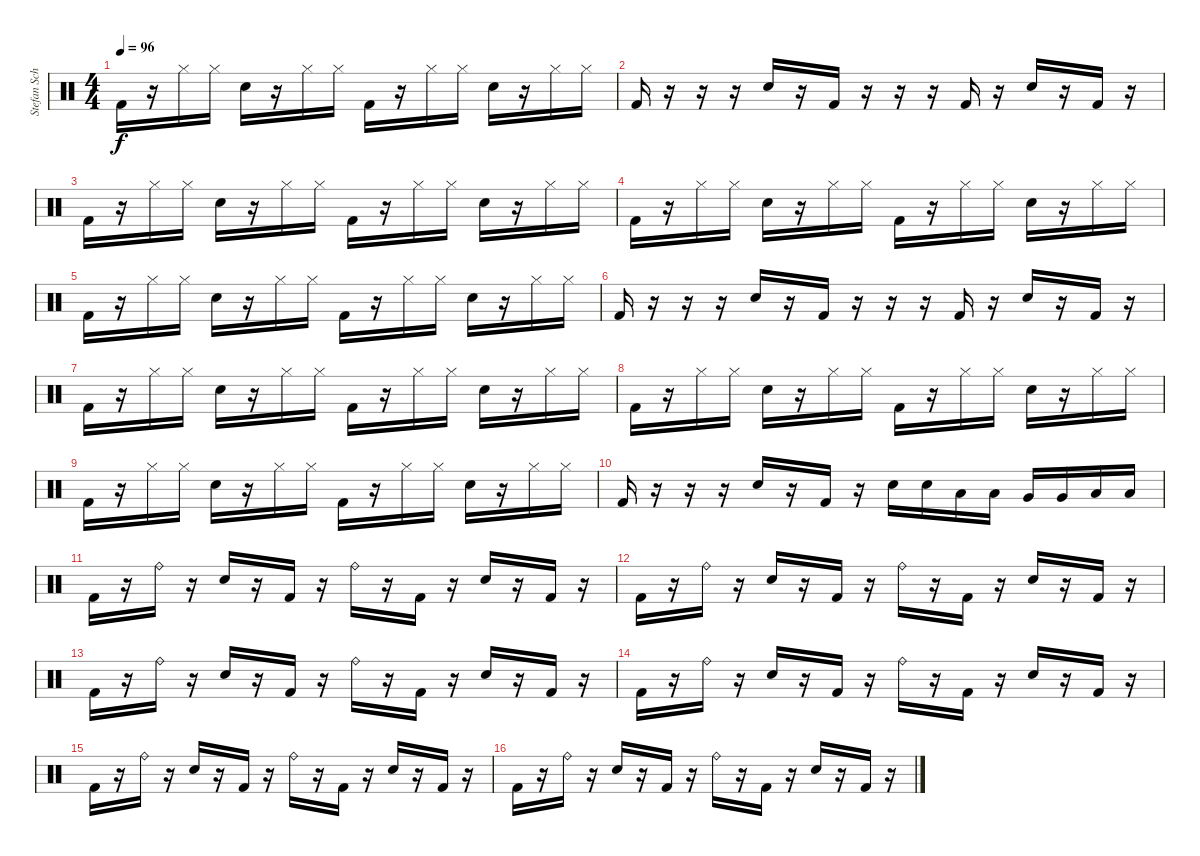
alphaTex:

\track ("Stefan Schwarzmann" "Stefan Sch") {instrument percussion}
\staff {score}
\articulation defaults
\ts (4 4)
\tempo 96
\clef neutral
\ks c "Kick (hit) 2".16{dy f}
r.16 "Hi-Hat (closed)".16 "Hi-Hat (closed)".16 "Snare (hit) 2".16 r.16 "Hi-Hat (closed)".16 "Hi-Hat (closed)".16 "Kick (hit) 2".16 r.16 "Hi-Hat (closed)".16 "Hi-Hat (closed)".16 "Snare (hit) 2".16 r.16 "Hi-Hat (closed)".16 "Hi-Hat (closed)".16 |
"Kick (hit) 2".16 r.16 r.16 r.16 "Snare (hit) 2".16 r.16 "Kick (hit) 2".16 r.16 r.16 r.16 "Kick (hit) 2".16 r.16 "Snare (hit) 2".16 r.16 "Kick (hit) 2".16 r.16 |
"Kick (hit) 2".16 r.16 "Hi-Hat (closed)".16 "Hi-Hat (closed)".16 "Snare (hit) 2".16 r.16 "Hi-Hat (closed)".16 "Hi-Hat (closed)".16 "Kick (hit) 2".16 r.16 "Hi-Hat (closed)".16 "Hi-Hat (closed)".16 "Snare (hit) 2".16 r.16 "Hi-Hat (closed)".16 "Hi-Hat (closed)".16 |
"Kick (hit) 2".16 r.16 "Hi-Hat (closed)".16 "Hi-Hat (closed)".16 "Snare (hit) 2".16 r.16 "Hi-Hat (closed)".16 "Hi-Hat (closed)".16 "Kick (hit) 2".16 r.16 "Hi-Hat (closed)".16 "Hi-Hat (closed)".16 "Snare (hit) 2".16 r.16 "Hi-Hat (closed)".16 "Hi-Hat (closed)".16 |
"Kick (hit) 2".16 r.16 "Hi-Hat (closed)".16 "Hi-Hat (closed)".16 "Snare (hit) 2".16 r.16 "Hi-Hat (closed)".16 "Hi-Hat (closed)".16 "Kick (hit) 2".16 r.16 "Hi-Hat (closed)".16 "Hi-Hat (closed)".16 "Snare (hit) 2".16 r.16 "Hi-Hat (closed)".16 "Hi-Hat (closed)".16 |
"Kick (hit) 2".16 r.16 r.16 r.16 "Snare (hit) 2".16 r.16 "Kick (hit) 2".16 r.16 r.16 r.16 "Kick (hit) 2".16 r.16 "Snare (hit) 2".16 r.16 "Kick (hit) 2".16 r.16 |
"Kick (hit) 2".16 r.16 "Hi-Hat (closed)".16 "Hi-Hat (closed)".16 "Snare (hit) 2".16 r.16 "Hi-Hat (closed)".16 "Hi-Hat (closed)".16 "Kick (hit) 2".16 r.16 "Hi-Hat (closed)".16 "Hi-Hat (closed)".16 "Snare (hit) 2".16 r.16 "Hi-Hat (closed)".16 "Hi-Hat (closed)".16 |
"Kick (hit) 2".16 r.16 "Hi-Hat (closed)".16 "Hi-Hat (closed)".16 "Snare (hit) 2".16 r.16 "Hi-Hat (closed)".16 "Hi-Hat (closed)".16 "Kick (hit) 2".16 r.16 "Hi-Hat (closed)".16 "Hi-Hat (closed)".16 "Snare (hit) 2".16 r.16 "Hi-Hat (closed)".16 "Hi-Hat (closed)".16 |
"Kick (hit) 2".16 r.16 "Hi-Hat (closed)".16 "Hi-Hat (closed)".16 "Snare (hit) 2".16 r.16 "Hi-Hat (closed)".16 "Hi-Hat (closed)".16 "Kick (hit) 2".16 r.16 "Hi-Hat (closed)".16 "Hi-Hat (closed)".16 "Snare (hit) 2".16 r.16 "Hi-Hat (closed)".16 "Hi-Hat (closed)".16 |
"Kick (hit) 2".16 r.16 r.16 r.16 "Snare (hit) 2".16 r.16 "Kick (hit) 2".16 r.16 "Snare (hit) 2".16 "Snare (hit) 2".16 "Low Tom (hit)".16 "Low Tom (hit)".16 "Very Low Tom (hit)".16 "Very Low Tom (hit)".16 "Low Floor Tom (hit)".16 "Low Floor Tom (hit)".16 |
"Kick (hit) 2".16 r.16 "Ride (bell)".16 r.16 "Snare (hit) 2".16 r.16 "Kick (hit) 2".16 r.16 "Ride (bell)".16 r.16 "Kick (hit) 2".16 r.16 "Snare (hit) 2".16 r.16 "Kick (hit) 2".16 r.16 |
"Kick (hit) 2".16 r.16 "Ride (bell)".16 r.16 "Snare (hit) 2".16 r.16 "Kick (hit) 2".16 r.16 "Ride (bell)".16 r.16 "Kick (hit) 2".16 r.16 "Snare (hit) 2".16 r.16 "Kick (hit) 2".16 r.16 |
"Kick (hit) 2".16 r.16 "Ride (bell)".16 r.16 "Snare (hit) 2".16 r.16 "Kick (hit) 2".16 r.16 "Ride (bell)".16 r.16 "Kick (hit) 2".16 r.16 "Snare (hit) 2".16 r.16 "Kick (hit) 2".16 r.16 |
"Kick (hit) 2".16 r.16 "Ride (bell)".16 r.16 "Snare (hit) 2".16 r.16 "Kick (hit) 2".16 r.16 "Ride (bell)".16 r.16 "Kick (hit) 2".16 r.16 "Snare (hit) 2".16 r.16 "Kick (hit) 2".16 r.16 |
"Kick (hit) 2".16 r.16 "Ride (bell)".16 r.16 "Snare (hit) 2".16 r.16 "Kick (hit) 2".16 r.16 "Ride (bell)".16 r.16 "Kick (hit) 2".16 r.16 "Snare (hit) 2".16 r.16 "Kick (hit) 2".16 r.16 |
"Kick (hit) 2".16 r.16 "Ride (bell)".16 r.16 "Snare (hit) 2".16 r.16 "Kick (hit) 2".16 r.16 "Ride (bell)".16 r.16 "Kick (hit) 2".16 r.16 "Snare (hit) 2".16 r.16 "Kick (hit) 2".16 r.16
